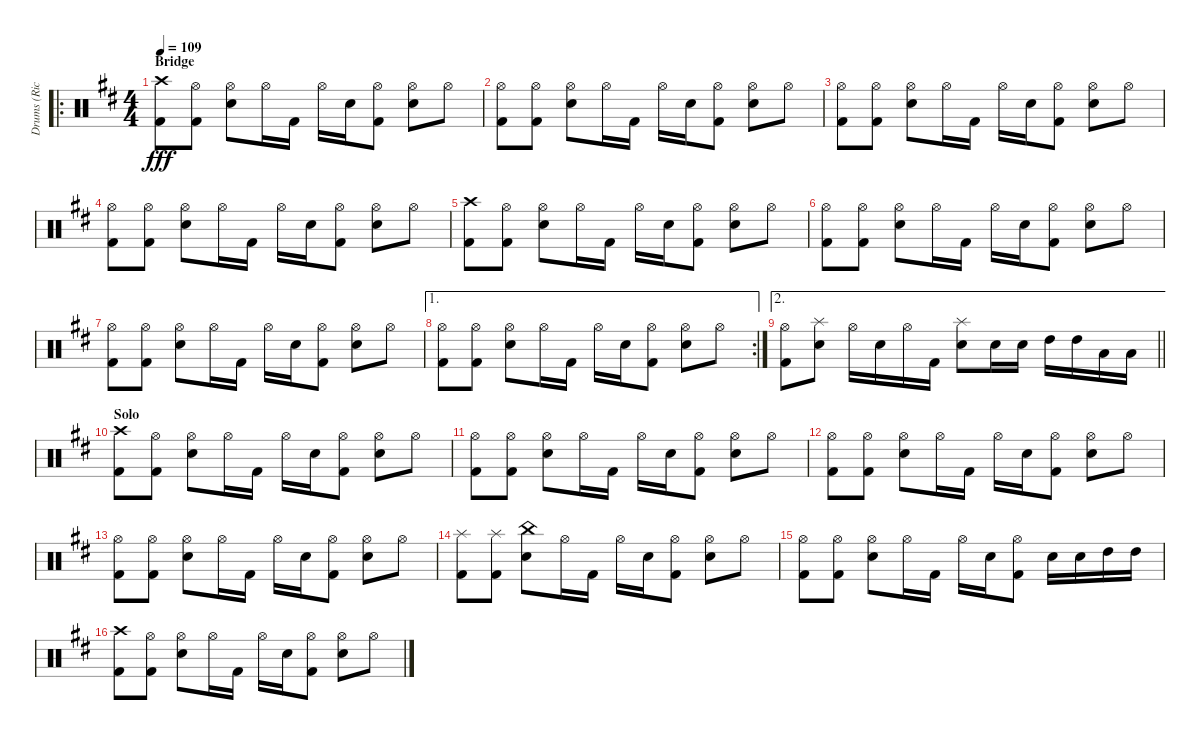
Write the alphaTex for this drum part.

\track ("Drums (Rick McMurray)" "Drums (Ric") {instrument percussion}
\staff {score}
\articulation defaults
\ro
\ts (4 4)
\section ("" "Bridge")
\tempo 109
\clef neutral
\ks d
("Crash high (hit)" "Kick (hit) 2").8{dy fff} ("Hi-Hat (open)" "Kick (hit) 2").8 ("Hi-Hat (open)" "Snare (hit) 2").8 "Hi-Hat (open)".16 "Kick (hit) 2".16 "Hi-Hat (open)".16 "Snare (hit) 2".16 ("Hi-Hat (open)" "Kick (hit) 2").8 ("Hi-Hat (open)" "Snare (hit) 2").8 "Hi-Hat (open)".8 |
("Hi-Hat (open)" "Kick (hit) 2").8 ("Hi-Hat (open)" "Kick (hit) 2").8 ("Hi-Hat (open)" "Snare (hit) 2").8 "Hi-Hat (open)".16 "Kick (hit) 2".16 "Hi-Hat (open)".16 "Snare (hit) 2".16 ("Hi-Hat (open)" "Kick (hit) 2").8 ("Hi-Hat (open)" "Snare (hit) 2").8 "Hi-Hat (open)".8 |
("Hi-Hat (open)" "Kick (hit) 2").8 ("Hi-Hat (open)" "Kick (hit) 2").8 ("Hi-Hat (open)" "Snare (hit) 2").8 "Hi-Hat (open)".16 "Kick (hit) 2".16 "Hi-Hat (open)".16 "Snare (hit) 2".16 ("Hi-Hat (open)" "Kick (hit) 2").8 ("Hi-Hat (open)" "Snare (hit) 2").8 "Hi-Hat (open)".8 |
("Hi-Hat (open)" "Kick (hit) 2").8 ("Hi-Hat (open)" "Kick (hit) 2").8 ("Hi-Hat (open)" "Snare (hit) 2").8 "Hi-Hat (open)".16 "Kick (hit) 2".16 "Hi-Hat (open)".16 "Snare (hit) 2".16 ("Hi-Hat (open)" "Kick (hit) 2").8 ("Hi-Hat (open)" "Snare (hit) 2").8 "Hi-Hat (open)".8 |
("Crash high (hit)" "Kick (hit) 2").8 ("Hi-Hat (open)" "Kick (hit) 2").8 ("Hi-Hat (open)" "Snare (hit) 2").8 "Hi-Hat (open)".16 "Kick (hit) 2".16 "Hi-Hat (open)".16 "Snare (hit) 2".16 ("Hi-Hat (open)" "Kick (hit) 2").8 ("Hi-Hat (open)" "Snare (hit) 2").8 "Hi-Hat (open)".8 |
("Hi-Hat (open)" "Kick (hit) 2").8 ("Hi-Hat (open)" "Kick (hit) 2").8 ("Hi-Hat (open)" "Snare (hit) 2").8 "Hi-Hat (open)".16 "Kick (hit) 2".16 "Hi-Hat (open)".16 "Snare (hit) 2".16 ("Hi-Hat (open)" "Kick (hit) 2").8 ("Hi-Hat (open)" "Snare (hit) 2").8 "Hi-Hat (open)".8 |
("Hi-Hat (open)" "Kick (hit) 2").8 ("Hi-Hat (open)" "Kick (hit) 2").8 ("Hi-Hat (open)" "Snare (hit) 2").8 "Hi-Hat (open)".16 "Kick (hit) 2".16 "Hi-Hat (open)".16 "Snare (hit) 2".16 ("Hi-Hat (open)" "Kick (hit) 2").8 ("Hi-Hat (open)" "Snare (hit) 2").8 "Hi-Hat (open)".8 |
\ae 1
\rc 2
("Hi-Hat (open)" "Kick (hit) 2").8 ("Hi-Hat (open)" "Kick (hit) 2").8 ("Hi-Hat (open)" "Snare (hit) 2").8 "Hi-Hat (open)".16 "Kick (hit) 2".16 "Hi-Hat (open)".16 "Snare (hit) 2".16 ("Hi-Hat (open)" "Kick (hit) 2").8 ("Hi-Hat (open)" "Snare (hit) 2").8 "Hi-Hat (open)".8 |
\ae 2
\barLineRight lightlight
("Hi-Hat (open)" "Kick (hit) 2").8 ("Splash (hit)" "Snare (hit) 2").8 "Hi-Hat (open)".16 "Snare (hit) 2".16 "Hi-Hat (open)".16 "Kick (hit) 2".16 ("Splash (hit)" "Snare (hit) 2").8 "Snare (hit) 2".16 "Snare (hit) 2".16 "High Tom (hit)".16 "High Tom (hit)".16 "Low Tom (hit)".16 "Low Tom (hit)".16 |
\section ("" "Solo")
("Crash high (hit)" "Kick (hit) 2").8 ("Hi-Hat (open)" "Kick (hit) 2").8 ("Hi-Hat (open)" "Snare (hit) 2").8 "Hi-Hat (open)".16 "Kick (hit) 2".16 "Hi-Hat (open)".16 "Snare (hit) 2".16 ("Hi-Hat (open)" "Kick (hit) 2").8 ("Hi-Hat (open)" "Snare (hit) 2").8 "Hi-Hat (open)".8 |
("Hi-Hat (open)" "Kick (hit) 2").8 ("Hi-Hat (open)" "Kick (hit) 2").8 ("Hi-Hat (open)" "Snare (hit) 2").8 "Hi-Hat (open)".16 "Kick (hit) 2".16 "Hi-Hat (open)".16 "Snare (hit) 2".16 ("Hi-Hat (open)" "Kick (hit) 2").8 ("Hi-Hat (open)" "Snare (hit) 2").8 "Hi-Hat (open)".8 |
("Hi-Hat (open)" "Kick (hit) 2").8 ("Hi-Hat (open)" "Kick (hit) 2").8 ("Hi-Hat (open)" "Snare (hit) 2").8 "Hi-Hat (open)".16 "Kick (hit) 2".16 "Hi-Hat (open)".16 "Snare (hit) 2".16 ("Hi-Hat (open)" "Kick (hit) 2").8 ("Hi-Hat (open)" "Snare (hit) 2").8 "Hi-Hat (open)".8 |
("Hi-Hat (open)" "Kick (hit) 2").8 ("Hi-Hat (open)" "Kick (hit) 2").8 ("Hi-Hat (open)" "Snare (hit) 2").8 "Hi-Hat (open)".16 "Kick (hit) 2".16 "Hi-Hat (open)".16 "Snare (hit) 2".16 ("Hi-Hat (open)" "Kick (hit) 2").8 ("Hi-Hat (open)" "Snare (hit) 2").8 "Hi-Hat (open)".8 |
("Splash (hit)" "Kick (hit) 2").8 ("Splash (hit)" "Kick (hit) 2").8 ("China (hit)" "Snare (hit) 2").8 "Hi-Hat (open)".16 "Kick (hit) 2".16 "Hi-Hat (open)".16 "Snare (hit) 2".16 ("Hi-Hat (open)" "Kick (hit) 2").8 ("Hi-Hat (open)" "Snare (hit) 2").8 "Hi-Hat (open)".8 |
("Hi-Hat (open)" "Kick (hit) 2").8 ("Hi-Hat (open)" "Kick (hit) 2").8 ("Hi-Hat (open)" "Snare (hit) 2").8 "Hi-Hat (open)".16 "Kick (hit) 2".16 "Hi-Hat (open)".16 "Snare (hit) 2".16 ("Hi-Hat (open)" "Kick (hit) 2").8 "Snare (hit) 2".16 "Snare (hit) 2".16 "High Tom (hit)".16 "High Tom (hit)".16 |
("Crash high (hit)" "Kick (hit) 2").8 ("Hi-Hat (open)" "Kick (hit) 2").8 ("Hi-Hat (open)" "Snare (hit) 2").8 "Hi-Hat (open)".16 "Kick (hit) 2".16 "Hi-Hat (open)".16 "Snare (hit) 2".16 ("Hi-Hat (open)" "Kick (hit) 2").8 ("Hi-Hat (open)" "Snare (hit) 2").8 "Hi-Hat (open)".8
